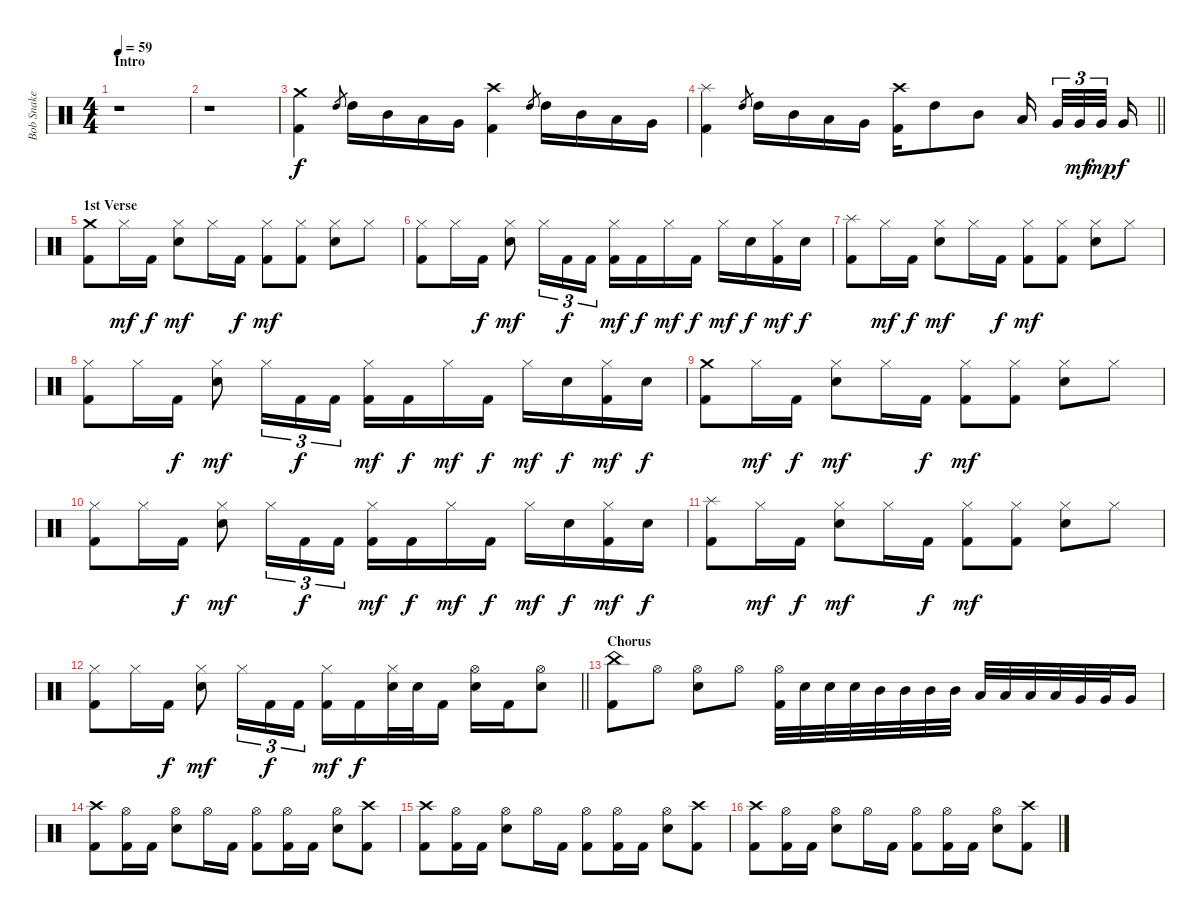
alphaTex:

\track ("Bob Snake" "Bob Snake") {instrument percussion}
\staff {score}
\articulation defaults
\ts (4 4)
\section ("" "Intro")
\tempo 59
\clef neutral
\ks c
r.1{dy f} |
r.1 |
("Crash medium (hit)" "Kick (hit) 2").4 "High Tom (hit)".8{gr} "High Tom (hit)".16 "Mid Tom (hit)".16 "Low Tom (hit)".16 "Very Low Tom (hit)".16 ("Crash high (hit)" "Kick (hit) 2").4 "High Tom (hit)".8{gr} "High Tom (hit)".16 "Mid Tom (hit)".16 "Low Tom (hit)".16 "Very Low Tom (hit)".16 |
\barLineRight lightlight
("Splash (hit)" "Kick (hit) 2").4 "High Tom (hit)".8{gr} "High Tom (hit)".16 "Mid Tom (hit)".16 "Low Tom (hit)".16 "Very Low Tom (hit)".16 ("Crash high (hit)" "Kick (hit) 2").16 "High Tom (hit)".8 "Mid Tom (hit)".8 "Low Tom (hit)".16 "Very Low Tom (hit)".32{tu (3 2)} "Very Low Tom (hit)".32{tu (3 2) dy mf} "Very Low Tom (hit)".32{tu (3 2) dy mp} "Very Low Tom (hit)".16{dy f} |
\section ("" "1st Verse")
("Crash medium (hit)" "Kick (hit) 2").8 "Hi-Hat (closed)".16{dy mf} "Kick (hit) 2".16{dy f} ("Hi-Hat (closed)" "Snare (hit) 2").8{dy mf} "Hi-Hat (closed)".16 "Kick (hit) 2".16{dy f} ("Hi-Hat (closed)" "Kick (hit) 2").8{dy mf} ("Hi-Hat (closed)" "Kick (hit) 2").8 ("Hi-Hat (closed)" "Snare (hit) 2").8 "Hi-Hat (closed)".8 |
("Hi-Hat (closed)" "Kick (hit) 2").8 "Hi-Hat (closed)".16 "Kick (hit) 2".16{dy f} ("Hi-Hat (closed)" "Snare (hit) 2").8{dy mf} "Hi-Hat (closed)".16{tu (3 2)} "Kick (hit) 2".16{tu (3 2) dy f} "Kick (hit) 2".16{tu (3 2)} ("Hi-Hat (closed)" "Kick (hit) 2").16{dy mf} "Kick (hit) 2".16{dy f} "Hi-Hat (closed)".16{dy mf} "Kick (hit) 2".16{dy f} "Hi-Hat (closed)".16{dy mf} "Snare (hit) 2".16{dy f} ("Hi-Hat (closed)" "Kick (hit) 2").16{dy mf} "Snare (hit) 2".16{dy f} |
("Splash (hit)" "Kick (hit) 2").8 "Hi-Hat (closed)".16{dy mf} "Kick (hit) 2".16{dy f} ("Hi-Hat (closed)" "Snare (hit) 2").8{dy mf} "Hi-Hat (closed)".16 "Kick (hit) 2".16{dy f} ("Hi-Hat (closed)" "Kick (hit) 2").8{dy mf} ("Hi-Hat (closed)" "Kick (hit) 2").8 ("Hi-Hat (closed)" "Snare (hit) 2").8 "Hi-Hat (closed)".8 |
("Hi-Hat (closed)" "Kick (hit) 2").8 "Hi-Hat (closed)".16 "Kick (hit) 2".16{dy f} ("Hi-Hat (closed)" "Snare (hit) 2").8{dy mf} "Hi-Hat (closed)".16{tu (3 2)} "Kick (hit) 2".16{tu (3 2) dy f} "Kick (hit) 2".16{tu (3 2)} ("Hi-Hat (closed)" "Kick (hit) 2").16{dy mf} "Kick (hit) 2".16{dy f} "Hi-Hat (closed)".16{dy mf} "Kick (hit) 2".16{dy f} "Hi-Hat (closed)".16{dy mf} "Snare (hit) 2".16{dy f} ("Hi-Hat (closed)" "Kick (hit) 2").16{dy mf} "Snare (hit) 2".16{dy f} |
("Crash medium (hit)" "Kick (hit) 2").8 "Hi-Hat (closed)".16{dy mf} "Kick (hit) 2".16{dy f} ("Hi-Hat (closed)" "Snare (hit) 2").8{dy mf} "Hi-Hat (closed)".16 "Kick (hit) 2".16{dy f} ("Hi-Hat (closed)" "Kick (hit) 2").8{dy mf} ("Hi-Hat (closed)" "Kick (hit) 2").8 ("Hi-Hat (closed)" "Snare (hit) 2").8 "Hi-Hat (closed)".8 |
("Hi-Hat (closed)" "Kick (hit) 2").8 "Hi-Hat (closed)".16 "Kick (hit) 2".16{dy f} ("Hi-Hat (closed)" "Snare (hit) 2").8{dy mf} "Hi-Hat (closed)".16{tu (3 2)} "Kick (hit) 2".16{tu (3 2) dy f} "Kick (hit) 2".16{tu (3 2)} ("Hi-Hat (closed)" "Kick (hit) 2").16{dy mf} "Kick (hit) 2".16{dy f} "Hi-Hat (closed)".16{dy mf} "Kick (hit) 2".16{dy f} "Hi-Hat (closed)".16{dy mf} "Snare (hit) 2".16{dy f} ("Hi-Hat (closed)" "Kick (hit) 2").16{dy mf} "Snare (hit) 2".16{dy f} |
("Splash (hit)" "Kick (hit) 2").8 "Hi-Hat (closed)".16{dy mf} "Kick (hit) 2".16{dy f} ("Hi-Hat (closed)" "Snare (hit) 2").8{dy mf} "Hi-Hat (closed)".16 "Kick (hit) 2".16{dy f} ("Hi-Hat (closed)" "Kick (hit) 2").8{dy mf} ("Hi-Hat (closed)" "Kick (hit) 2").8 ("Hi-Hat (closed)" "Snare (hit) 2").8 "Hi-Hat (closed)".8 |
\barLineRight lightlight
("Hi-Hat (closed)" "Kick (hit) 2").8 "Hi-Hat (closed)".16 "Kick (hit) 2".16{dy f} ("Hi-Hat (closed)" "Snare (hit) 2").8{dy mf} "Hi-Hat (closed)".16{tu (3 2)} "Kick (hit) 2".16{tu (3 2) dy f} "Kick (hit) 2".16{tu (3 2)} ("Hi-Hat (closed)" "Kick (hit) 2").16{dy mf} "Kick (hit) 2".16{dy f} ("Hi-Hat (closed)" "Snare (hit) 2").32 "Snare (hit) 2".32 "Kick (hit) 2".16 ("Hi-Hat (open)" "Snare (hit) 2").16 "Kick (hit) 2".16 ("Hi-Hat (open)" "Snare (hit) 2").8 |
\section ("" "Chorus")
("China (hit)" "Kick (hit) 2").8 "Hi-Hat (open)".8 ("Hi-Hat (open)" "Snare (hit) 2").8 "Hi-Hat (open)".8 ("Hi-Hat (open)" "Kick (hit) 2").32 "Snare (hit) 2".32 "Snare (hit) 2".32 "Snare (hit) 2".32 "Mid Tom (hit)".32 "Mid Tom (hit)".32 "Mid Tom (hit)".32 "Mid Tom (hit)".32 "Low Tom (hit)".32 "Low Tom (hit)".32 "Low Tom (hit)".32 "Low Tom (hit)".32 "Very Low Tom (hit)".32 "Very Low Tom (hit)".32 "Very Low Tom (hit)".16 |
("Crash high (hit)" "Kick (hit) 2").8 ("Hi-Hat (open)" "Kick (hit) 2").16 "Kick (hit) 2".16 ("Hi-Hat (open)" "Snare (hit) 2").8 "Hi-Hat (open)".16 "Kick (hit) 2".16 ("Hi-Hat (open)" "Kick (hit) 2").8 ("Hi-Hat (open)" "Kick (hit) 2").16 "Kick (hit) 2".16 ("Hi-Hat (open)" "Snare (hit) 2").8 ("Crash high (hit)" "Kick (hit) 2").8 |
("Crash high (hit)" "Kick (hit) 2").8 ("Hi-Hat (open)" "Kick (hit) 2").16 "Kick (hit) 2".16 ("Hi-Hat (open)" "Snare (hit) 2").8 "Hi-Hat (open)".16 "Kick (hit) 2".16 ("Hi-Hat (open)" "Kick (hit) 2").8 ("Hi-Hat (open)" "Kick (hit) 2").16 "Kick (hit) 2".16 ("Hi-Hat (open)" "Snare (hit) 2").8 ("Crash high (hit)" "Kick (hit) 2").8 |
("Crash high (hit)" "Kick (hit) 2").8 ("Hi-Hat (open)" "Kick (hit) 2").16 "Kick (hit) 2".16 ("Hi-Hat (open)" "Snare (hit) 2").8 "Hi-Hat (open)".16 "Kick (hit) 2".16 ("Hi-Hat (open)" "Kick (hit) 2").8 ("Hi-Hat (open)" "Kick (hit) 2").16 "Kick (hit) 2".16 ("Hi-Hat (open)" "Snare (hit) 2").8 ("Crash high (hit)" "Kick (hit) 2").8
